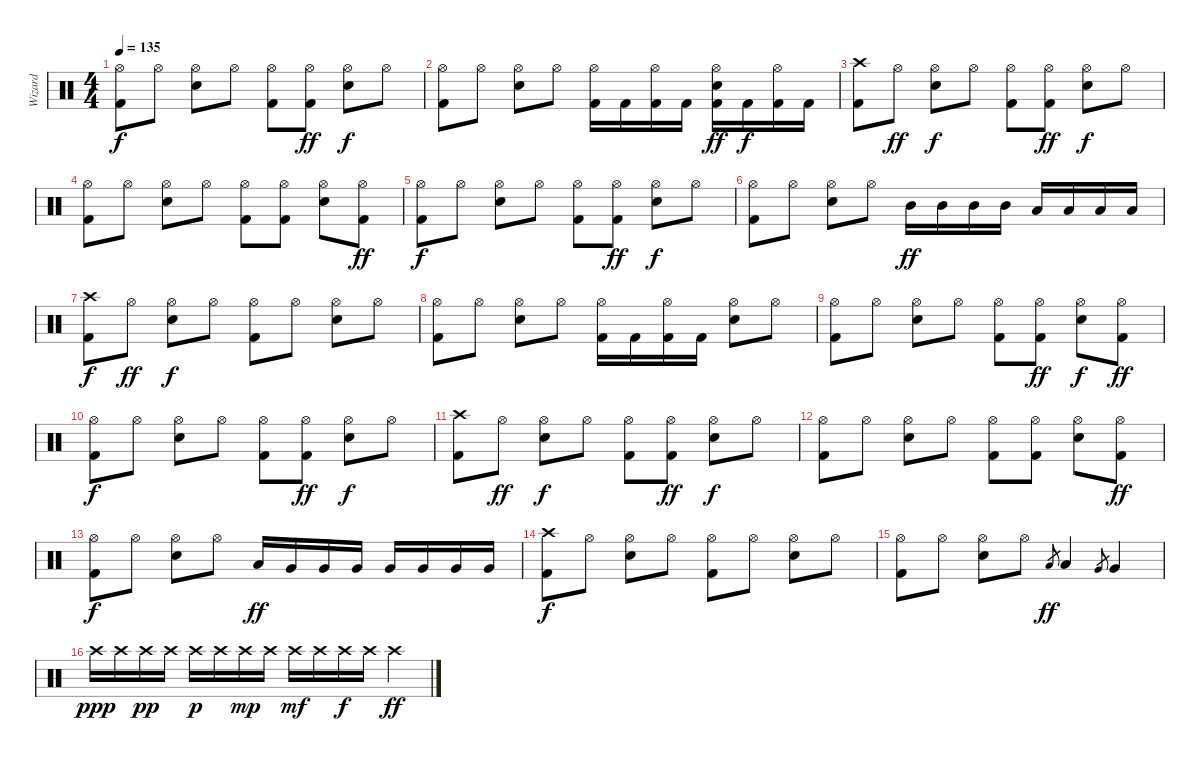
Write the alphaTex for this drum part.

\track ("Wizard" "Wizard") {instrument percussion}
\staff {score}
\articulation defaults
\ts (4 4)
\tempo 135
\clef neutral
\ks c
("Hi-Hat (open)" "Kick (hit) 2").8{dy f} "Hi-Hat (open)".8 ("Hi-Hat (open)" "Snare (hit) 2").8 "Hi-Hat (open)".8 ("Hi-Hat (open)" "Kick (hit) 2").8 ("Hi-Hat (open)" "Kick (hit) 2").8{dy ff} ("Hi-Hat (open)" "Snare (hit) 2").8{dy f} "Hi-Hat (open)".8 |
("Hi-Hat (open)" "Kick (hit) 2").8 "Hi-Hat (open)".8 ("Hi-Hat (open)" "Snare (hit) 2").8 "Hi-Hat (open)".8 ("Hi-Hat (open)" "Kick (hit) 2").16 "Kick (hit) 2".16 ("Hi-Hat (open)" "Kick (hit) 2").16 "Kick (hit) 2".16 ("Hi-Hat (open)" "Snare (hit) 2" "Kick (hit) 2").16{dy ff} "Kick (hit) 2".16{dy f} ("Hi-Hat (open)" "Kick (hit) 2").16 "Kick (hit) 2".16 |
("Crash high (hit)" "Kick (hit) 2").8 "Hi-Hat (open)".8{dy ff} ("Hi-Hat (open)" "Snare (hit) 2").8{dy f} "Hi-Hat (open)".8 ("Hi-Hat (open)" "Kick (hit) 2").8 ("Hi-Hat (open)" "Kick (hit) 2").8{dy ff} ("Hi-Hat (open)" "Snare (hit) 2").8{dy f} "Hi-Hat (open)".8 |
("Hi-Hat (open)" "Kick (hit) 2").8 "Hi-Hat (open)".8 ("Hi-Hat (open)" "Snare (hit) 2").8 "Hi-Hat (open)".8 ("Hi-Hat (open)" "Kick (hit) 2").8 ("Hi-Hat (open)" "Kick (hit) 2").8 ("Hi-Hat (open)" "Snare (hit) 2").8 ("Hi-Hat (open)" "Kick (hit) 2").8{dy ff} |
("Hi-Hat (open)" "Kick (hit) 2").8{dy f} "Hi-Hat (open)".8 ("Hi-Hat (open)" "Snare (hit) 2").8 "Hi-Hat (open)".8 ("Hi-Hat (open)" "Kick (hit) 2").8 ("Hi-Hat (open)" "Kick (hit) 2").8{dy ff} ("Hi-Hat (open)" "Snare (hit) 2").8{dy f} "Hi-Hat (open)".8 |
("Hi-Hat (open)" "Kick (hit) 2").8 "Hi-Hat (open)".8 ("Hi-Hat (open)" "Snare (hit) 2").8 "Hi-Hat (open)".8 "Mid Tom (hit)".16{dy ff} "Mid Tom (hit)".16 "Mid Tom (hit)".16 "Mid Tom (hit)".16 "Low Tom (hit)".16 "Low Tom (hit)".16 "Low Tom (hit)".16 "Low Tom (hit)".16 |
("Crash high (hit)" "Kick (hit) 2").8{dy f} "Hi-Hat (open)".8{dy ff} ("Hi-Hat (open)" "Snare (hit) 2").8{dy f} "Hi-Hat (open)".8 ("Hi-Hat (open)" "Kick (hit) 2").8 "Hi-Hat (open)".8 ("Hi-Hat (open)" "Snare (hit) 2").8 "Hi-Hat (open)".8 |
("Hi-Hat (open)" "Kick (hit) 2").8 "Hi-Hat (open)".8 ("Hi-Hat (open)" "Snare (hit) 2").8 "Hi-Hat (open)".8 ("Hi-Hat (open)" "Kick (hit) 2").16 "Kick (hit) 2".16 ("Hi-Hat (open)" "Kick (hit) 2").16 "Kick (hit) 2".16 ("Hi-Hat (open)" "Snare (hit) 2").8 "Hi-Hat (open)".8 |
("Hi-Hat (open)" "Kick (hit) 2").8 "Hi-Hat (open)".8 ("Hi-Hat (open)" "Snare (hit) 2").8 "Hi-Hat (open)".8 ("Hi-Hat (open)" "Kick (hit) 2").8 ("Hi-Hat (open)" "Kick (hit) 2").8{dy ff} ("Hi-Hat (open)" "Snare (hit) 2").8{dy f} ("Hi-Hat (open)" "Kick (hit) 2").8{dy ff} |
("Hi-Hat (open)" "Kick (hit) 2").8{dy f} "Hi-Hat (open)".8 ("Hi-Hat (open)" "Snare (hit) 2").8 "Hi-Hat (open)".8 ("Hi-Hat (open)" "Kick (hit) 2").8 ("Hi-Hat (open)" "Kick (hit) 2").8{dy ff} ("Hi-Hat (open)" "Snare (hit) 2").8{dy f} "Hi-Hat (open)".8 |
("Crash high (hit)" "Kick (hit) 2").8 "Hi-Hat (open)".8{dy ff} ("Hi-Hat (open)" "Snare (hit) 2").8{dy f} "Hi-Hat (open)".8 ("Hi-Hat (open)" "Kick (hit) 2").8 ("Hi-Hat (open)" "Kick (hit) 2").8{dy ff} ("Hi-Hat (open)" "Snare (hit) 2").8{dy f} "Hi-Hat (open)".8 |
("Hi-Hat (open)" "Kick (hit) 2").8 "Hi-Hat (open)".8 ("Hi-Hat (open)" "Snare (hit) 2").8 "Hi-Hat (open)".8 ("Hi-Hat (open)" "Kick (hit) 2").8 ("Hi-Hat (open)" "Kick (hit) 2").8 ("Hi-Hat (open)" "Snare (hit) 2").8 ("Hi-Hat (open)" "Kick (hit) 2").8{dy ff} |
("Hi-Hat (open)" "Kick (hit) 2").8{dy f} "Hi-Hat (open)".8 ("Hi-Hat (open)" "Snare (hit) 2").8 "Hi-Hat (open)".8 "Low Tom (hit)".16{dy ff} "Very Low Tom (hit)".16 "Very Low Tom (hit)".16 "Very Low Tom (hit)".16 "Very Low Tom (hit)".16 "Very Low Tom (hit)".16 "Very Low Tom (hit)".16 "Very Low Tom (hit)".16 |
("Crash high (hit)" "Kick (hit) 2").8{dy f} "Hi-Hat (open)".8 ("Hi-Hat (open)" "Snare (hit) 2").8 "Hi-Hat (open)".8 ("Hi-Hat (open)" "Kick (hit) 2").8 "Hi-Hat (open)".8 ("Hi-Hat (open)" "Snare (hit) 2").8 "Hi-Hat (open)".8 |
("Hi-Hat (open)" "Kick (hit) 2").8 "Hi-Hat (open)".8 ("Hi-Hat (open)" "Snare (hit) 2").8 "Hi-Hat (open)".8 "Low Tom (hit)".8{gr dy ff} "Low Tom (hit)".4 "Very Low Tom (hit)".8{gr} "Very Low Tom (hit)".4 |
"Crash high (hit)".16{dy ppp} "Crash high (hit)".16 "Crash high (hit)".16{dy pp} "Crash high (hit)".16 "Crash high (hit)".16{dy p} "Crash high (hit)".16 "Crash high (hit)".16{dy mp} "Crash high (hit)".16 "Crash high (hit)".16{dy mf} "Crash high (hit)".16 "Crash high (hit)".16{dy f} "Crash high (hit)".16 "Crash high (hit)".4{dy ff}
